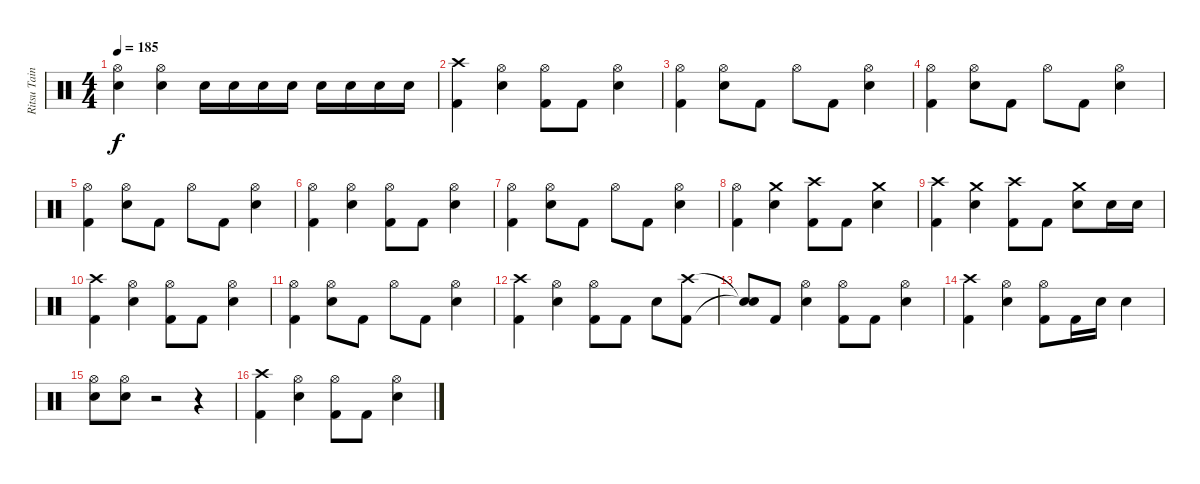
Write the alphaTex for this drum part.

\track ("Ritsu Tainaka" "Ritsu Tain") {instrument percussion}
\staff {score}
\articulation defaults
\ts (4 4)
\tempo 185
\clef neutral
\ks c
("Hi-Hat (open)" "Snare (hit) 2").4{dy f} ("Hi-Hat (open)" "Snare (hit) 2").4 "Snare (hit) 2".16 "Snare (hit) 2".16 "Snare (hit) 2".16 "Snare (hit) 2".16 "Snare (hit) 2".16 "Snare (hit) 2".16 "Snare (hit) 2".16 "Snare (hit) 2".16 |
("Crash high (hit)" "Kick (hit) 2").4 ("Hi-Hat (open)" "Snare (hit) 2").4 ("Hi-Hat (open)" "Kick (hit) 2").8 "Kick (hit) 2".8 ("Hi-Hat (open)" "Snare (hit) 2").4 |
("Hi-Hat (open)" "Kick (hit) 2").4 ("Hi-Hat (open)" "Snare (hit) 2").8 "Kick (hit) 2".8 "Hi-Hat (open)".8 "Kick (hit) 2".8 ("Hi-Hat (open)" "Snare (hit) 2").4 |
("Hi-Hat (open)" "Kick (hit) 2").4 ("Hi-Hat (open)" "Snare (hit) 2").8 "Kick (hit) 2".8 "Hi-Hat (open)".8 "Kick (hit) 2".8 ("Hi-Hat (open)" "Snare (hit) 2").4 |
("Hi-Hat (open)" "Kick (hit) 2").4 ("Hi-Hat (open)" "Snare (hit) 2").8 "Kick (hit) 2".8 "Hi-Hat (open)".8 "Kick (hit) 2".8 ("Hi-Hat (open)" "Snare (hit) 2").4 |
("Hi-Hat (open)" "Kick (hit) 2").4 ("Hi-Hat (open)" "Snare (hit) 2").4 ("Hi-Hat (open)" "Kick (hit) 2").8 "Kick (hit) 2".8 ("Hi-Hat (open)" "Snare (hit) 2").4 |
("Hi-Hat (open)" "Kick (hit) 2").4 ("Hi-Hat (open)" "Snare (hit) 2").8 "Kick (hit) 2".8 "Hi-Hat (open)".8 "Kick (hit) 2".8 ("Hi-Hat (open)" "Snare (hit) 2").4 |
("Hi-Hat (open)" "Kick (hit) 2").4 ("Crash medium (hit)" "Snare (hit) 2").4 ("Crash high (hit)" "Kick (hit) 2").8 "Kick (hit) 2".8 ("Crash medium (hit)" "Snare (hit) 2").4 |
("Crash high (hit)" "Kick (hit) 2").4 ("Crash medium (hit)" "Snare (hit) 2").4 ("Crash high (hit)" "Kick (hit) 2").8 "Kick (hit) 2".8 ("Crash medium (hit)" "Snare (hit) 2").8 "Snare (hit) 2".16 "Snare (hit) 2".16 |
("Crash high (hit)" "Kick (hit) 2").4 ("Hi-Hat (open)" "Snare (hit) 2").4 ("Hi-Hat (open)" "Kick (hit) 2").8 "Kick (hit) 2".8 ("Hi-Hat (open)" "Snare (hit) 2").4 |
("Hi-Hat (open)" "Kick (hit) 2").4 ("Hi-Hat (open)" "Snare (hit) 2").8 "Kick (hit) 2".8 "Hi-Hat (open)".8 "Kick (hit) 2".8 ("Hi-Hat (open)" "Snare (hit) 2").4 |
("Crash high (hit)" "Kick (hit) 2").4 ("Hi-Hat (open)" "Snare (hit) 2").4 ("Hi-Hat (open)" "Kick (hit) 2").8 "Kick (hit) 2".8 "Snare (hit) 2".8 ("Crash high (hit)" "Kick (hit) 2").8 |
("Snare (hit)"{t} "Snare (hit)"{t}).8 "Kick (hit) 2".8 ("Hi-Hat (open)" "Snare (hit) 2").4 ("Hi-Hat (open)" "Kick (hit) 2").8 "Kick (hit) 2".8 ("Hi-Hat (open)" "Snare (hit) 2").4 |
("Crash high (hit)" "Kick (hit) 2").4 ("Hi-Hat (open)" "Snare (hit) 2").4 ("Hi-Hat (open)" "Kick (hit) 2").8 "Kick (hit) 2".16 "Snare (hit) 2".16 "Snare (hit) 2".4 |
("Hi-Hat (open)" "Snare (hit) 2").8 ("Hi-Hat (open)" "Snare (hit) 2").8 r.2 r.4 |
("Crash high (hit)" "Kick (hit) 2").4 ("Hi-Hat (open)" "Snare (hit) 2").4 ("Hi-Hat (open)" "Kick (hit) 2").8 "Kick (hit) 2".8 ("Hi-Hat (open)" "Snare (hit) 2").4
